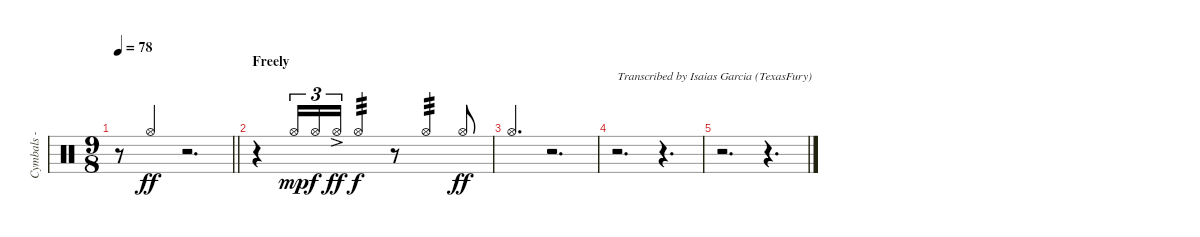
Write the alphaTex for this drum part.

\track ("Cymbals - hi-hat" "Cymbals - ") {instrument percussion}
\staff {score}
\articulation defaults
\ts (9 8)
\tempo 78
\clef neutral
\barLineRight lightlight
\ks c
r.8{dy ff} "Hi-Hat (open)".4{beam Up} r.2{d} |
\section ("" "Freely")
r.4 "Hi-Hat (open)".16{tu (3 2) dy mp beam Up} "Hi-Hat (open)".16{tu (3 2) dy f beam Up} "Hi-Hat (open)"{ac}.16{tu (3 2) dy ff beam Up} "Hi-Hat (open)".4{tp 3 dy f beam Up} r.8 "Hi-Hat (open)".4{tp 3 beam Up} "Hi-Hat (open)".8{dy ff beam Up} |
"Hi-Hat (open)".4{d beam Up} r.2{d} |
r.2{d txt "Transcribed by Isaias Garcia (TexasFury)"} r.4{d} |
r.2{d} r.4{d}
